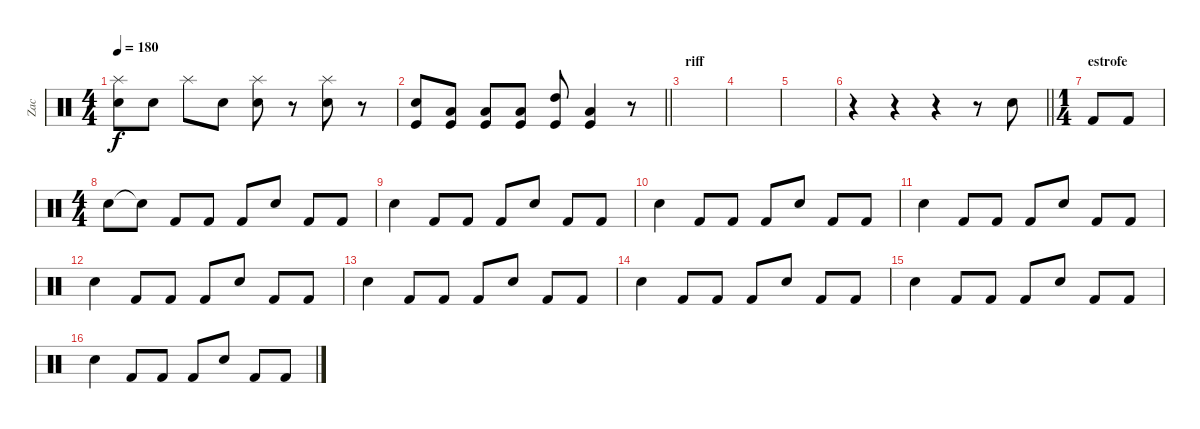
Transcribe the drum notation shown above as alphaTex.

\track ("Zac" "Zac") {instrument percussion}
\staff {score}
\articulation defaults
\ts (4 4)
\tempo 180
\clef neutral
\ks c
("Electric Snare (hit)" "Splash (hit)").8{dy f} "Electric Snare (hit)".8 "Splash (hit)".8 "Electric Snare (hit)".8 ("Electric Snare (hit)" "Splash (hit)").8 r.8 ("Electric Snare (hit)" "Splash (hit)").8 r.8 |
\barLineRight lightlight
("Kick (hit)" "Electric Snare (hit)").8 ("Kick (hit)" "Low Tom (hit)").8 ("Kick (hit)" "Low Tom (hit)").8 ("Kick (hit)" "Low Tom (hit)").8 ("Kick (hit)" "High Tom (hit)").8 ("Kick (hit)" "Low Tom (hit)").4 r.8 |
\section ("" "riff")
|
|
|
\barLineRight lightlight
r.4 r.4 r.4 r.8 "Electric Snare (hit)".8 |
\ts (1 4)
\section ("" "estrofe")
"Kick (hit) 2".8 "Kick (hit) 2".8 |
\ts (4 4)
"Electric Snare (hit)".8 "Electric Snare (hit)"{t}.8 "Kick (hit) 2".8 "Kick (hit) 2".8 "Kick (hit) 2".8 "Electric Snare (hit)".8 "Kick (hit) 2".8 "Kick (hit) 2".8 |
"Electric Snare (hit)".4 "Kick (hit) 2".8 "Kick (hit) 2".8 "Kick (hit) 2".8 "Electric Snare (hit)".8 "Kick (hit) 2".8 "Kick (hit) 2".8 |
"Electric Snare (hit)".4 "Kick (hit) 2".8 "Kick (hit) 2".8 "Kick (hit) 2".8 "Electric Snare (hit)".8 "Kick (hit) 2".8 "Kick (hit) 2".8 |
"Electric Snare (hit)".4 "Kick (hit) 2".8 "Kick (hit) 2".8 "Kick (hit) 2".8 "Electric Snare (hit)".8 "Kick (hit) 2".8 "Kick (hit) 2".8 |
"Electric Snare (hit)".4 "Kick (hit) 2".8 "Kick (hit) 2".8 "Kick (hit) 2".8 "Electric Snare (hit)".8 "Kick (hit) 2".8 "Kick (hit) 2".8 |
"Electric Snare (hit)".4 "Kick (hit) 2".8 "Kick (hit) 2".8 "Kick (hit) 2".8 "Electric Snare (hit)".8 "Kick (hit) 2".8 "Kick (hit) 2".8 |
"Electric Snare (hit)".4 "Kick (hit) 2".8 "Kick (hit) 2".8 "Kick (hit) 2".8 "Electric Snare (hit)".8 "Kick (hit) 2".8 "Kick (hit) 2".8 |
"Electric Snare (hit)".4 "Kick (hit) 2".8 "Kick (hit) 2".8 "Kick (hit) 2".8 "Electric Snare (hit)".8 "Kick (hit) 2".8 "Kick (hit) 2".8 |
"Electric Snare (hit)".4 "Kick (hit) 2".8 "Kick (hit) 2".8 "Kick (hit) 2".8 "Electric Snare (hit)".8 "Kick (hit) 2".8 "Kick (hit) 2".8
